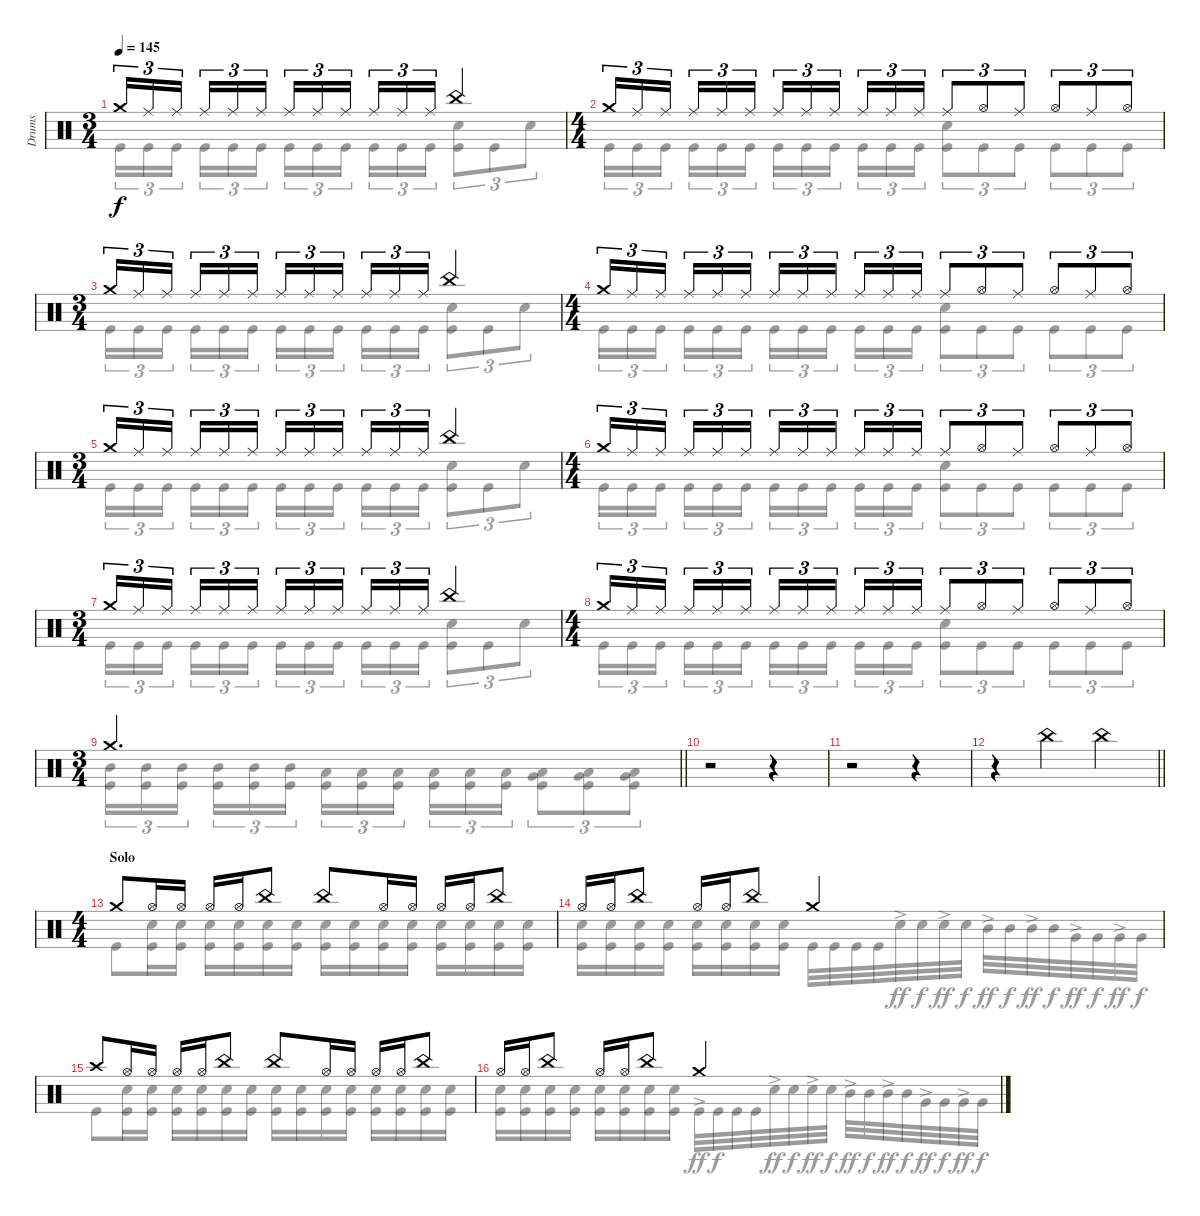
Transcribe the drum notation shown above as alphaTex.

\track ("Drums" "Drums") {instrument percussion}
\staff {score}
\articulation defaults
\voice
\ts (3 4)
\tempo 145
\clef neutral
\ks c "Crash medium (hit)".16{tu (3 2) dy f} "Ride (middle)".16{tu (3 2)} "Ride (middle)".16{tu (3 2) beam splitsecondary} "Ride (middle)".16{tu (3 2)} "Ride (middle)".16{tu (3 2)} "Ride (middle)".16{tu (3 2)} "Ride (middle)".16{tu (3 2)} "Ride (middle)".16{tu (3 2)} "Ride (middle)".16{tu (3 2) beam splitsecondary} "Ride (middle)".16{tu (3 2)} "Ride (middle)".16{tu (3 2)} "Ride (middle)".16{tu (3 2)} "China (hit)".4
|
\ts (4 4)
"Crash medium (hit)".16{tu (3 2)} "Ride (middle)".16{tu (3 2)} "Ride (middle)".16{tu (3 2) beam splitsecondary} "Ride (middle)".16{tu (3 2)} "Ride (middle)".16{tu (3 2)} "Ride (middle)".16{tu (3 2)} "Ride (middle)".16{tu (3 2)} "Ride (middle)".16{tu (3 2)} "Ride (middle)".16{tu (3 2) beam splitsecondary} "Ride (middle)".16{tu (3 2)} "Ride (middle)".16{tu (3 2)} "Ride (middle)".16{tu (3 2)} "Ride (middle)".8{tu (3 2)} "Hi-Hat (open)".8{tu (3 2)} "Ride (middle)".8{tu (3 2)} "Hi-Hat (open)".8{tu (3 2)} "Ride (middle)".8{tu (3 2)} "Hi-Hat (open)".8{tu (3 2)} |
\ts (3 4)
"Crash medium (hit)".16{tu (3 2)} "Ride (middle)".16{tu (3 2)} "Ride (middle)".16{tu (3 2) beam splitsecondary} "Ride (middle)".16{tu (3 2)} "Ride (middle)".16{tu (3 2)} "Ride (middle)".16{tu (3 2)} "Ride (middle)".16{tu (3 2)} "Ride (middle)".16{tu (3 2)} "Ride (middle)".16{tu (3 2) beam splitsecondary} "Ride (middle)".16{tu (3 2)} "Ride (middle)".16{tu (3 2)} "Ride (middle)".16{tu (3 2)} "China (hit)".4 |
\ts (4 4)
"Crash medium (hit)".16{tu (3 2)} "Ride (middle)".16{tu (3 2)} "Ride (middle)".16{tu (3 2) beam splitsecondary} "Ride (middle)".16{tu (3 2)} "Ride (middle)".16{tu (3 2)} "Ride (middle)".16{tu (3 2)} "Ride (middle)".16{tu (3 2)} "Ride (middle)".16{tu (3 2)} "Ride (middle)".16{tu (3 2) beam splitsecondary} "Ride (middle)".16{tu (3 2)} "Ride (middle)".16{tu (3 2)} "Ride (middle)".16{tu (3 2)} "Ride (middle)".8{tu (3 2)} "Hi-Hat (open)".8{tu (3 2)} "Ride (middle)".8{tu (3 2)} "Hi-Hat (open)".8{tu (3 2)} "Ride (middle)".8{tu (3 2)} "Hi-Hat (open)".8{tu (3 2)} |
\ts (3 4)
"Crash medium (hit)".16{tu (3 2)} "Ride (middle)".16{tu (3 2)} "Ride (middle)".16{tu (3 2) beam splitsecondary} "Ride (middle)".16{tu (3 2)} "Ride (middle)".16{tu (3 2)} "Ride (middle)".16{tu (3 2)} "Ride (middle)".16{tu (3 2)} "Ride (middle)".16{tu (3 2)} "Ride (middle)".16{tu (3 2) beam splitsecondary} "Ride (middle)".16{tu (3 2)} "Ride (middle)".16{tu (3 2)} "Ride (middle)".16{tu (3 2)} "China (hit)".4 |
\ts (4 4)
"Crash medium (hit)".16{tu (3 2)} "Ride (middle)".16{tu (3 2)} "Ride (middle)".16{tu (3 2) beam splitsecondary} "Ride (middle)".16{tu (3 2)} "Ride (middle)".16{tu (3 2)} "Ride (middle)".16{tu (3 2)} "Ride (middle)".16{tu (3 2)} "Ride (middle)".16{tu (3 2)} "Ride (middle)".16{tu (3 2) beam splitsecondary} "Ride (middle)".16{tu (3 2)} "Ride (middle)".16{tu (3 2)} "Ride (middle)".16{tu (3 2)} "Ride (middle)".8{tu (3 2)} "Hi-Hat (open)".8{tu (3 2)} "Ride (middle)".8{tu (3 2)} "Hi-Hat (open)".8{tu (3 2)} "Ride (middle)".8{tu (3 2)} "Hi-Hat (open)".8{tu (3 2)} |
\ts (3 4)
"Crash medium (hit)".16{tu (3 2)} "Ride (middle)".16{tu (3 2)} "Ride (middle)".16{tu (3 2) beam splitsecondary} "Ride (middle)".16{tu (3 2)} "Ride (middle)".16{tu (3 2)} "Ride (middle)".16{tu (3 2)} "Ride (middle)".16{tu (3 2)} "Ride (middle)".16{tu (3 2)} "Ride (middle)".16{tu (3 2) beam splitsecondary} "Ride (middle)".16{tu (3 2)} "Ride (middle)".16{tu (3 2)} "Ride (middle)".16{tu (3 2)} "China (hit)".4 |
\ts (4 4)
"Crash medium (hit)".16{tu (3 2)} "Ride (middle)".16{tu (3 2)} "Ride (middle)".16{tu (3 2) beam splitsecondary} "Ride (middle)".16{tu (3 2)} "Ride (middle)".16{tu (3 2)} "Ride (middle)".16{tu (3 2)} "Ride (middle)".16{tu (3 2)} "Ride (middle)".16{tu (3 2)} "Ride (middle)".16{tu (3 2) beam splitsecondary} "Ride (middle)".16{tu (3 2)} "Ride (middle)".16{tu (3 2)} "Ride (middle)".16{tu (3 2)} "Ride (middle)".8{tu (3 2)} "Hi-Hat (open)".8{tu (3 2)} "Ride (middle)".8{tu (3 2)} "Hi-Hat (open)".8{tu (3 2)} "Ride (middle)".8{tu (3 2)} "Hi-Hat (open)".8{tu (3 2)} |
\ts (3 4)
\barLineRight lightlight "Crash medium (hit)".2{d}
|
r.2 r.4 |
r.2 r.4 |
\barLineRight lightlight
r.4 "China (hit)".4 "China (hit)".4 |
\ts (4 4)
\section ("" "Solo")
"Crash medium (hit)".8 "Hi-Hat (open)".16 "Hi-Hat (open)".16 "Hi-Hat (open)".16 "Hi-Hat (open)".16 "China (hit)".8 "China (hit)".8 "Hi-Hat (open)".16 "Hi-Hat (open)".16 "Hi-Hat (open)".16 "Hi-Hat (open)".16 "China (hit)".8 |
"Hi-Hat (open)".16 "Hi-Hat (open)".16 "China (hit)".8 "Hi-Hat (open)".16 "Hi-Hat (open)".16 "China (hit)".8 "Crash medium (hit)".2 |
"Crash high (hit)".8 "Hi-Hat (open)".16 "Hi-Hat (open)".16 "Hi-Hat (open)".16 "Hi-Hat (open)".16 "China (hit)".8 "China (hit)".8 "Hi-Hat (open)".16 "Hi-Hat (open)".16 "Hi-Hat (open)".16 "Hi-Hat (open)".16 "China (hit)".8 |
"Hi-Hat (open)".16 "Hi-Hat (open)".16 "China (hit)".8 "Hi-Hat (open)".16 "Hi-Hat (open)".16 "China (hit)".8 "Crash medium (hit)".2
\voice
\clef neutral
\ottava regular
\simile none
\ks c "Kick (hit)".16{tu (3 2) dy f} "Kick (hit)".16{tu (3 2)} "Kick (hit)".16{tu (3 2) beam splitsecondary} "Kick (hit)".16{tu (3 2)} "Kick (hit)".16{tu (3 2)} "Kick (hit)".16{tu (3 2)} "Kick (hit)".16{tu (3 2)} "Kick (hit)".16{tu (3 2)} "Kick (hit)".16{tu (3 2) beam splitsecondary} "Kick (hit)".16{tu (3 2)} "Kick (hit)".16{tu (3 2)} "Kick (hit)".16{tu (3 2)}
("Snare (hit) 2" "Kick (hit)").8{tu (3 2)} "Kick (hit)".8{tu (3 2)} "Snare (hit) 2".8{tu (3 2)} |
"Kick (hit)".16{tu (3 2)} "Kick (hit)".16{tu (3 2)} "Kick (hit)".16{tu (3 2) beam splitsecondary} "Kick (hit)".16{tu (3 2)} "Kick (hit)".16{tu (3 2)} "Kick (hit)".16{tu (3 2)} "Kick (hit)".16{tu (3 2)} "Kick (hit)".16{tu (3 2)} "Kick (hit)".16{tu (3 2) beam splitsecondary} "Kick (hit)".16{tu (3 2)} "Kick (hit)".16{tu (3 2)} "Kick (hit)".16{tu (3 2)} ("Snare (hit) 2" "Kick (hit)").8{tu (3 2)} "Kick (hit)".8{tu (3 2)} "Kick (hit)".8{tu (3 2)} "Kick (hit)".8{tu (3 2)} "Kick (hit)".8{tu (3 2)} "Kick (hit)".8{tu (3 2)} |
"Kick (hit)".16{tu (3 2)} "Kick (hit)".16{tu (3 2)} "Kick (hit)".16{tu (3 2) beam splitsecondary} "Kick (hit)".16{tu (3 2)} "Kick (hit)".16{tu (3 2)} "Kick (hit)".16{tu (3 2)} "Kick (hit)".16{tu (3 2)} "Kick (hit)".16{tu (3 2)} "Kick (hit)".16{tu (3 2) beam splitsecondary} "Kick (hit)".16{tu (3 2)} "Kick (hit)".16{tu (3 2)} "Kick (hit)".16{tu (3 2)} ("Snare (hit) 2" "Kick (hit)").8{tu (3 2)} "Kick (hit)".8{tu (3 2)} "Snare (hit) 2".8{tu (3 2)} |
"Kick (hit)".16{tu (3 2)} "Kick (hit)".16{tu (3 2)} "Kick (hit)".16{tu (3 2) beam splitsecondary} "Kick (hit)".16{tu (3 2)} "Kick (hit)".16{tu (3 2)} "Kick (hit)".16{tu (3 2)} "Kick (hit)".16{tu (3 2)} "Kick (hit)".16{tu (3 2)} "Kick (hit)".16{tu (3 2) beam splitsecondary} "Kick (hit)".16{tu (3 2)} "Kick (hit)".16{tu (3 2)} "Kick (hit)".16{tu (3 2)} ("Snare (hit) 2" "Kick (hit)").8{tu (3 2)} "Kick (hit)".8{tu (3 2)} "Kick (hit)".8{tu (3 2)} "Kick (hit)".8{tu (3 2)} "Kick (hit)".8{tu (3 2)} "Kick (hit)".8{tu (3 2)} |
"Kick (hit)".16{tu (3 2)} "Kick (hit)".16{tu (3 2)} "Kick (hit)".16{tu (3 2) beam splitsecondary} "Kick (hit)".16{tu (3 2)} "Kick (hit)".16{tu (3 2)} "Kick (hit)".16{tu (3 2)} "Kick (hit)".16{tu (3 2)} "Kick (hit)".16{tu (3 2)} "Kick (hit)".16{tu (3 2) beam splitsecondary} "Kick (hit)".16{tu (3 2)} "Kick (hit)".16{tu (3 2)} "Kick (hit)".16{tu (3 2)} ("Snare (hit) 2" "Kick (hit)").8{tu (3 2)} "Kick (hit)".8{tu (3 2)} "Snare (hit) 2".8{tu (3 2)} |
"Kick (hit)".16{tu (3 2)} "Kick (hit)".16{tu (3 2)} "Kick (hit)".16{tu (3 2) beam splitsecondary} "Kick (hit)".16{tu (3 2)} "Kick (hit)".16{tu (3 2)} "Kick (hit)".16{tu (3 2)} "Kick (hit)".16{tu (3 2)} "Kick (hit)".16{tu (3 2)} "Kick (hit)".16{tu (3 2) beam splitsecondary} "Kick (hit)".16{tu (3 2)} "Kick (hit)".16{tu (3 2)} "Kick (hit)".16{tu (3 2)} ("Snare (hit) 2" "Kick (hit)").8{tu (3 2)} "Kick (hit)".8{tu (3 2)} "Kick (hit)".8{tu (3 2)} "Kick (hit)".8{tu (3 2)} "Kick (hit)".8{tu (3 2)} "Kick (hit)".8{tu (3 2)} |
"Kick (hit)".16{tu (3 2)} "Kick (hit)".16{tu (3 2)} "Kick (hit)".16{tu (3 2) beam splitsecondary} "Kick (hit)".16{tu (3 2)} "Kick (hit)".16{tu (3 2)} "Kick (hit)".16{tu (3 2)} "Kick (hit)".16{tu (3 2)} "Kick (hit)".16{tu (3 2)} "Kick (hit)".16{tu (3 2) beam splitsecondary} "Kick (hit)".16{tu (3 2)} "Kick (hit)".16{tu (3 2)} "Kick (hit)".16{tu (3 2)} ("Snare (hit) 2" "Kick (hit)").8{tu (3 2)} "Kick (hit)".8{tu (3 2)} "Snare (hit) 2".8{tu (3 2)} |
"Kick (hit)".16{tu (3 2)} "Kick (hit)".16{tu (3 2)} "Kick (hit)".16{tu (3 2) beam splitsecondary} "Kick (hit)".16{tu (3 2)} "Kick (hit)".16{tu (3 2)} "Kick (hit)".16{tu (3 2)} "Kick (hit)".16{tu (3 2)} "Kick (hit)".16{tu (3 2)} "Kick (hit)".16{tu (3 2) beam splitsecondary} "Kick (hit)".16{tu (3 2)} "Kick (hit)".16{tu (3 2)} "Kick (hit)".16{tu (3 2)} ("Snare (hit) 2" "Kick (hit)").8{tu (3 2)} "Kick (hit)".8{tu (3 2)} "Kick (hit)".8{tu (3 2)} "Kick (hit)".8{tu (3 2)} "Kick (hit)".8{tu (3 2)} "Kick (hit)".8{tu (3 2)} |
\barLineRight lightlight
("Mid Tom (hit)" "Kick (hit)").16{tu (3 2)} ("Mid Tom (hit)" "Kick (hit)").16{tu (3 2)} ("Mid Tom (hit)" "Kick (hit)").16{tu (3 2) beam splitsecondary} ("Mid Tom (hit)" "Kick (hit)").16{tu (3 2)} ("Mid Tom (hit)" "Kick (hit)").16{tu (3 2)} ("Mid Tom (hit)" "Kick (hit)").16{tu (3 2)} ("Low Tom (hit)" "Kick (hit)").16{tu (3 2)} ("Low Tom (hit)" "Kick (hit)").16{tu (3 2)} ("Low Tom (hit)" "Kick (hit)").16{tu (3 2) beam splitsecondary} ("Low Tom (hit)" "Kick (hit)").16{tu (3 2)} ("Low Tom (hit)" "Kick (hit)").16{tu (3 2)} ("Low Tom (hit)" "Kick (hit)").16{tu (3 2)} ("Very Low Tom (hit)" "Low Tom (hit)" "Kick (hit)").8{tu (3 2)} ("Very Low Tom (hit)" "Low Tom (hit)" "Kick (hit)").8{tu (3 2)} ("Very Low Tom (hit)" "Low Tom (hit)" "Kick (hit)").8{tu (3 2)} |
|
|
\barLineRight lightlight
|
"Kick (hit)".8 ("Snare (hit) 2" "Kick (hit)").16 ("Snare (hit) 2" "Kick (hit)").16 ("Snare (hit) 2" "Kick (hit)").16 ("Snare (hit) 2" "Kick (hit)").16 ("Snare (hit) 2" "Kick (hit)").16 ("Snare (hit) 2" "Kick (hit)").16 ("Snare (hit) 2" "Kick (hit)").16 ("Snare (hit) 2" "Kick (hit)").16 ("Snare (hit) 2" "Kick (hit)").16 ("Snare (hit) 2" "Kick (hit)").16 ("Snare (hit) 2" "Kick (hit)").16 ("Snare (hit) 2" "Kick (hit)").16 ("Snare (hit) 2" "Kick (hit)").16 ("Snare (hit) 2" "Kick (hit)").16 |
("Snare (hit) 2" "Kick (hit)").16 ("Snare (hit) 2" "Kick (hit)").16 ("Snare (hit) 2" "Kick (hit)").16 ("Snare (hit) 2" "Kick (hit)").16 ("Snare (hit) 2" "Kick (hit)").16 ("Snare (hit) 2" "Kick (hit)").16 ("Snare (hit) 2" "Kick (hit)").16 ("Snare (hit) 2" "Kick (hit)").16 "Kick (hit)".32 "Kick (hit)".32 "Kick (hit)".32 "Kick (hit)".32 "Snare (hit) 2"{ac}.32{dy ff} "Snare (hit) 2".32{dy f} "Snare (hit) 2"{ac}.32{dy ff} "Snare (hit) 2".32{dy f} "Mid Tom (hit)"{ac}.32{dy ff} "Mid Tom (hit)".32{dy f} "Mid Tom (hit)"{ac}.32{dy ff} "Mid Tom (hit)".32{dy f} "Very Low Tom (hit)"{ac}.32{dy ff} "Very Low Tom (hit)".32{dy f} "Very Low Tom (hit)"{ac}.32{dy ff} "Very Low Tom (hit)".32{dy f} |
"Kick (hit)".8 ("Snare (hit) 2" "Kick (hit)").16 ("Snare (hit) 2" "Kick (hit)").16 ("Snare (hit) 2" "Kick (hit)").16 ("Snare (hit) 2" "Kick (hit)").16 ("Snare (hit) 2" "Kick (hit)").16 ("Snare (hit) 2" "Kick (hit)").16 ("Snare (hit) 2" "Kick (hit)").16 ("Snare (hit) 2" "Kick (hit)").16 ("Snare (hit) 2" "Kick (hit)").16 ("Snare (hit) 2" "Kick (hit)").16 ("Snare (hit) 2" "Kick (hit)").16 ("Snare (hit) 2" "Kick (hit)").16 ("Snare (hit) 2" "Kick (hit)").16 ("Snare (hit) 2" "Kick (hit)").16 |
("Snare (hit) 2" "Kick (hit)").16 ("Snare (hit) 2" "Kick (hit)").16 ("Snare (hit) 2" "Kick (hit)").16 ("Snare (hit) 2" "Kick (hit)").16 ("Snare (hit) 2" "Kick (hit)").16 ("Snare (hit) 2" "Kick (hit)").16 ("Snare (hit) 2" "Kick (hit)").16 ("Snare (hit) 2" "Kick (hit)").16 "Kick (hit)"{ac}.32{dy ff} "Kick (hit)".32{dy f} "Kick (hit)".32 "Kick (hit)".32 "Snare (hit) 2"{ac}.32{dy ff} "Snare (hit) 2".32{dy f} "Snare (hit) 2"{ac}.32{dy ff} "Snare (hit) 2".32{dy f} "Mid Tom (hit)"{ac}.32{dy ff} "Mid Tom (hit)".32{dy f} "Mid Tom (hit)"{ac}.32{dy ff} "Mid Tom (hit)".32{dy f} "Very Low Tom (hit)"{ac}.32{dy ff} "Very Low Tom (hit)".32{dy f} "Very Low Tom (hit)"{ac}.32{dy ff} "Very Low Tom (hit)".32{dy f}
